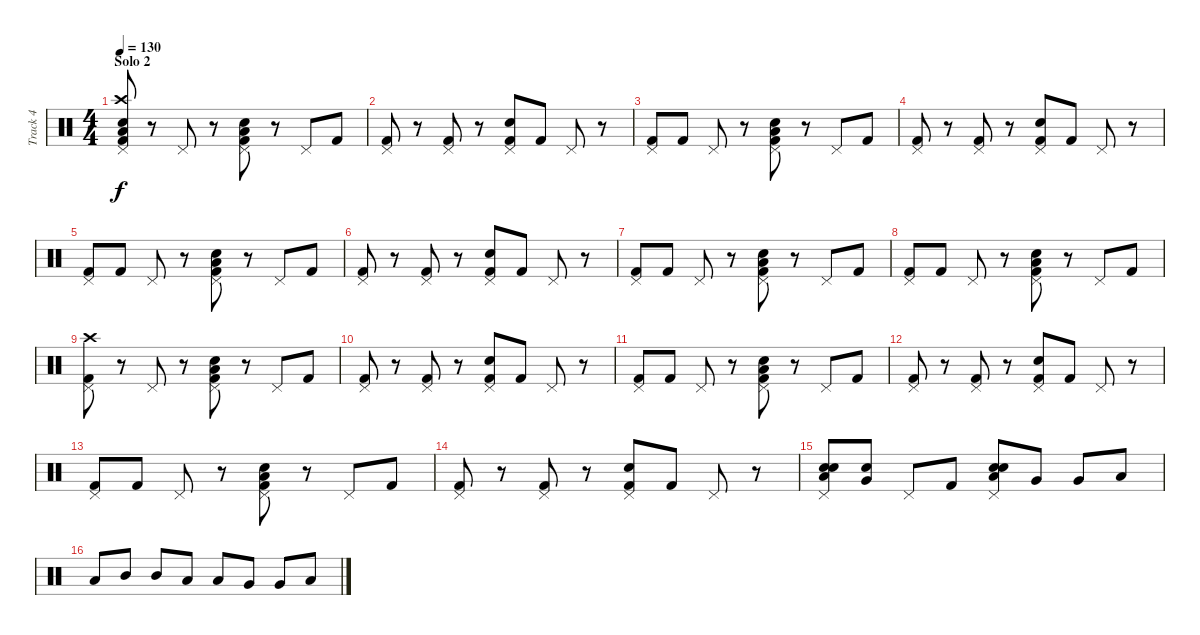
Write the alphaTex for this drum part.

\track ("Track 4" "Track 4") {instrument percussion}
\staff {score}
\articulation defaults
\ts (4 4)
\section ("" "Solo 2")
\tempo 130
\clef neutral
\ks c
("Low Floor Tom (hit)" "Snare (hit) 2" "Crash high (hit)" "Kick (hit) 2" "Pedal Hi-Hat (hit)").8{dy f} r.8 "Pedal Hi-Hat (hit)".8 r.8 ("Low Tom (hit)" "Snare (hit) 2" "Kick (hit) 2" "Pedal Hi-Hat (hit)").8 r.8 "Pedal Hi-Hat (hit)".8 "Kick (hit) 2".8 |
("Kick (hit) 2" "Pedal Hi-Hat (hit)").8 r.8 ("Pedal Hi-Hat (hit)" "Kick (hit) 2").8 r.8 ("Pedal Hi-Hat (hit)" "Kick (hit) 2" "Snare (hit) 2").8 "Kick (hit) 2".8 "Pedal Hi-Hat (hit)".8 r.8 |
("Kick (hit) 2" "Pedal Hi-Hat (hit)").8 "Kick (hit) 2".8 "Pedal Hi-Hat (hit)".8 r.8 ("Low Tom (hit)" "Snare (hit) 2" "Kick (hit) 2" "Pedal Hi-Hat (hit)").8 r.8 "Pedal Hi-Hat (hit)".8 "Kick (hit) 2".8 |
("Kick (hit) 2" "Pedal Hi-Hat (hit)").8 r.8 ("Pedal Hi-Hat (hit)" "Kick (hit) 2").8 r.8 ("Pedal Hi-Hat (hit)" "Kick (hit) 2" "Snare (hit) 2").8 "Kick (hit) 2".8 "Pedal Hi-Hat (hit)".8 r.8 |
("Kick (hit) 2" "Pedal Hi-Hat (hit)").8 "Kick (hit) 2".8 "Pedal Hi-Hat (hit)".8 r.8 ("Low Tom (hit)" "Snare (hit) 2" "Kick (hit) 2" "Pedal Hi-Hat (hit)").8 r.8 "Pedal Hi-Hat (hit)".8 "Kick (hit) 2".8 |
("Kick (hit) 2" "Pedal Hi-Hat (hit)").8 r.8 ("Pedal Hi-Hat (hit)" "Kick (hit) 2").8 r.8 ("Pedal Hi-Hat (hit)" "Kick (hit) 2" "Snare (hit) 2").8 "Kick (hit) 2".8 "Pedal Hi-Hat (hit)".8 r.8 |
("Kick (hit) 2" "Pedal Hi-Hat (hit)").8 "Kick (hit) 2".8 "Pedal Hi-Hat (hit)".8 r.8 ("Low Tom (hit)" "Snare (hit) 2" "Kick (hit) 2" "Pedal Hi-Hat (hit)").8 r.8 "Pedal Hi-Hat (hit)".8 "Kick (hit) 2".8 |
("Kick (hit) 2" "Pedal Hi-Hat (hit)").8 "Kick (hit) 2".8 "Pedal Hi-Hat (hit)".8 r.8 ("Low Tom (hit)" "Snare (hit) 2" "Kick (hit) 2" "Pedal Hi-Hat (hit)").8 r.8 "Pedal Hi-Hat (hit)".8 "Kick (hit) 2".8 |
("Kick (hit) 2" "Pedal Hi-Hat (hit)" "Crash high (hit)").8 r.8 "Pedal Hi-Hat (hit)".8 r.8 ("Low Tom (hit)" "Snare (hit) 2" "Kick (hit) 2" "Pedal Hi-Hat (hit)").8 r.8 "Pedal Hi-Hat (hit)".8 "Kick (hit) 2".8 |
("Kick (hit) 2" "Pedal Hi-Hat (hit)").8 r.8 ("Pedal Hi-Hat (hit)" "Kick (hit) 2").8 r.8 ("Pedal Hi-Hat (hit)" "Kick (hit) 2" "Snare (hit) 2").8 "Kick (hit) 2".8 "Pedal Hi-Hat (hit)".8 r.8 |
("Kick (hit) 2" "Pedal Hi-Hat (hit)").8 "Kick (hit) 2".8 "Pedal Hi-Hat (hit)".8 r.8 ("Low Tom (hit)" "Snare (hit) 2" "Kick (hit) 2" "Pedal Hi-Hat (hit)").8 r.8 "Pedal Hi-Hat (hit)".8 "Kick (hit) 2".8 |
("Kick (hit) 2" "Pedal Hi-Hat (hit)").8 r.8 ("Pedal Hi-Hat (hit)" "Kick (hit) 2").8 r.8 ("Pedal Hi-Hat (hit)" "Kick (hit) 2" "Snare (hit) 2").8 "Kick (hit) 2".8 "Pedal Hi-Hat (hit)".8 r.8 |
("Kick (hit) 2" "Pedal Hi-Hat (hit)").8 "Kick (hit) 2".8 "Pedal Hi-Hat (hit)".8 r.8 ("Low Tom (hit)" "Snare (hit) 2" "Kick (hit) 2" "Pedal Hi-Hat (hit)").8 r.8 "Pedal Hi-Hat (hit)".8 "Kick (hit) 2".8 |
("Kick (hit) 2" "Pedal Hi-Hat (hit)").8 r.8 ("Pedal Hi-Hat (hit)" "Kick (hit) 2").8 r.8 ("Pedal Hi-Hat (hit)" "Kick (hit) 2" "Snare (hit) 2").8 "Kick (hit) 2".8 "Pedal Hi-Hat (hit)".8 r.8 |
("Low Tom (hit)" "Electric Snare (hit)" "Pedal Hi-Hat (hit)" "Snare (hit) 2").8 ("Electric Snare (hit)" "Very Low Tom (hit)").8 "Pedal Hi-Hat (hit)".8 "Kick (hit) 2".8 ("Low Tom (hit)" "Electric Snare (hit)" "Pedal Hi-Hat (hit)" "Snare (hit) 2").8 "Very Low Tom (hit)".8 "Very Low Tom (hit)".8 "Low Tom (hit)".8 |
"Low Tom (hit)".8 "Mid Tom (hit)".8 "Mid Tom (hit)".8 "Low Tom (hit)".8 "Low Tom (hit)".8 "Very Low Tom (hit)".8 "Very Low Tom (hit)".8 "Low Floor Tom (hit)".8
